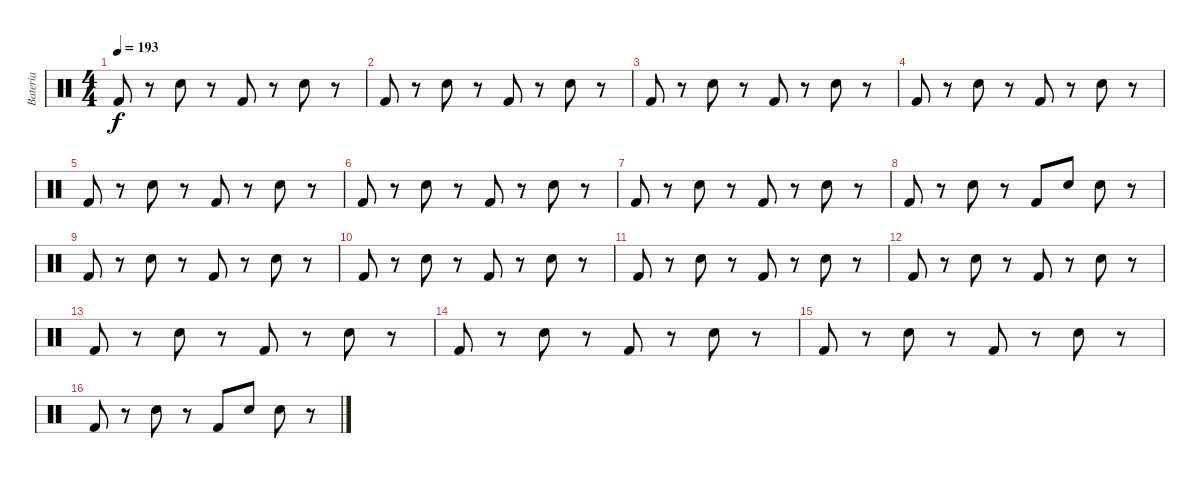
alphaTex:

\track ("Bateria" "Bateria") {instrument percussion}
\staff {score}
\articulation defaults
\ts (4 4)
\tempo 193
\clef neutral
\ks c "Kick (hit) 2".8{dy f}
r.8 "Electric Snare (hit)".8 r.8 "Kick (hit) 2".8 r.8 "Electric Snare (hit)".8 r.8 |
"Kick (hit) 2".8 r.8 "Electric Snare (hit)".8 r.8 "Kick (hit) 2".8 r.8 "Electric Snare (hit)".8 r.8 |
"Kick (hit) 2".8 r.8 "Electric Snare (hit)".8 r.8 "Kick (hit) 2".8 r.8 "Electric Snare (hit)".8 r.8 |
"Kick (hit) 2".8 r.8 "Electric Snare (hit)".8 r.8 "Kick (hit) 2".8 r.8 "Electric Snare (hit)".8 r.8 |
"Kick (hit) 2".8 r.8 "Electric Snare (hit)".8 r.8 "Kick (hit) 2".8 r.8 "Electric Snare (hit)".8 r.8 |
"Kick (hit) 2".8 r.8 "Electric Snare (hit)".8 r.8 "Kick (hit) 2".8 r.8 "Electric Snare (hit)".8 r.8 |
"Kick (hit) 2".8 r.8 "Electric Snare (hit)".8 r.8 "Kick (hit) 2".8 r.8 "Electric Snare (hit)".8 r.8 |
"Kick (hit) 2".8 r.8 "Electric Snare (hit)".8 r.8 "Kick (hit) 2".8 "Electric Snare (hit)".8 "Electric Snare (hit)".8 r.8 |
"Kick (hit) 2".8 r.8 "Electric Snare (hit)".8 r.8 "Kick (hit) 2".8 r.8 "Electric Snare (hit)".8 r.8 |
"Kick (hit) 2".8 r.8 "Electric Snare (hit)".8 r.8 "Kick (hit) 2".8 r.8 "Electric Snare (hit)".8 r.8 |
"Kick (hit) 2".8 r.8 "Electric Snare (hit)".8 r.8 "Kick (hit) 2".8 r.8 "Electric Snare (hit)".8 r.8 |
"Kick (hit) 2".8 r.8 "Electric Snare (hit)".8 r.8 "Kick (hit) 2".8 r.8 "Electric Snare (hit)".8 r.8 |
"Kick (hit) 2".8 r.8 "Electric Snare (hit)".8 r.8 "Kick (hit) 2".8 r.8 "Electric Snare (hit)".8 r.8 |
"Kick (hit) 2".8 r.8 "Electric Snare (hit)".8 r.8 "Kick (hit) 2".8 r.8 "Electric Snare (hit)".8 r.8 |
"Kick (hit) 2".8 r.8 "Electric Snare (hit)".8 r.8 "Kick (hit) 2".8 r.8 "Electric Snare (hit)".8 r.8 |
"Kick (hit) 2".8 r.8 "Electric Snare (hit)".8 r.8 "Kick (hit) 2".8 "Electric Snare (hit)".8 "Electric Snare (hit)".8 r.8
